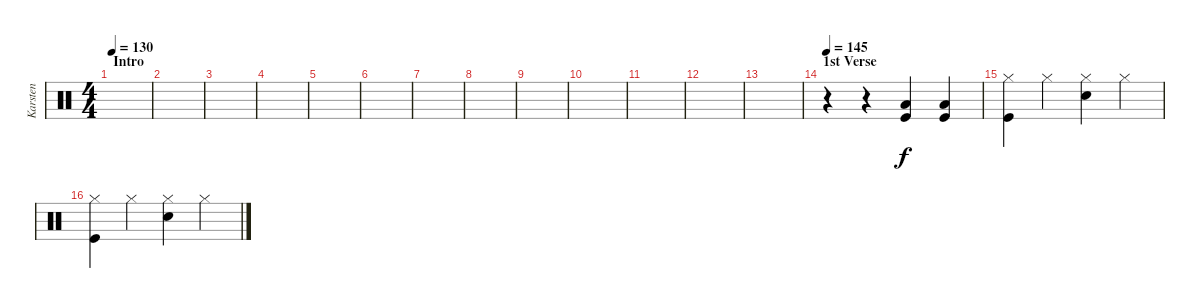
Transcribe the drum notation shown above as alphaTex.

\track ("Karsten" "Karsten") {instrument percussion}
\staff {score}
\articulation defaults
\ts (4 4)
\section ("" "Intro")
\tempo 130
\clef neutral
\ks c
|
|
|
|
|
|
|
|
|
|
|
|
|
\section ("" "1st Verse")
\tempo 145
r.4 r.4 ("Low Floor Tom (hit)" "Kick (hit)").4 ("Low Floor Tom (hit)" "Kick (hit)").4 |
("Hi-Hat (closed)" "Kick (hit)").4 "Hi-Hat (closed)".4 ("Hi-Hat (closed)" "Snare (hit) 2").4 "Hi-Hat (closed)".4 |
("Hi-Hat (closed)" "Kick (hit)").4 "Hi-Hat (closed)".4 ("Hi-Hat (closed)" "Snare (hit) 2").4 "Hi-Hat (closed)".4
